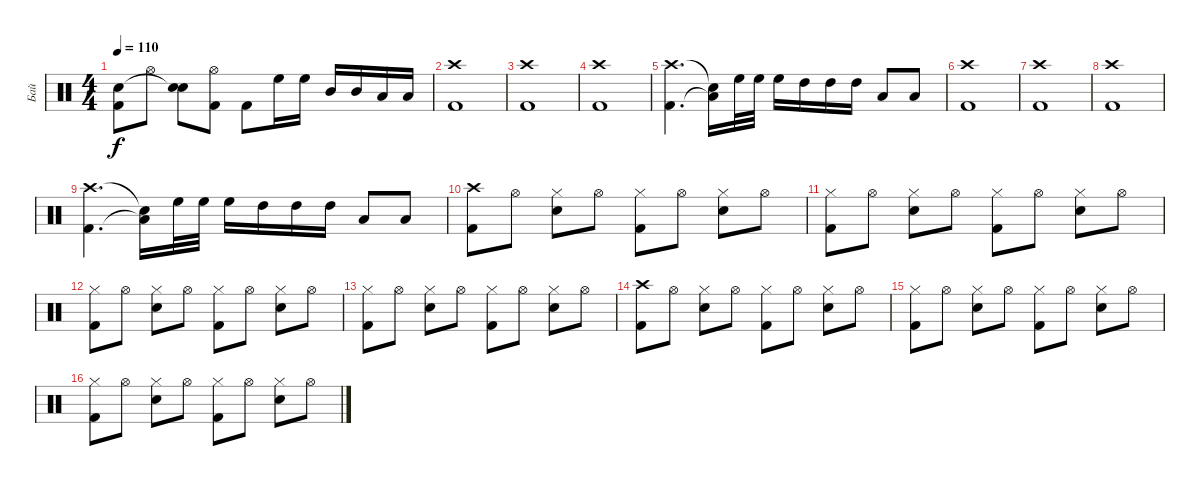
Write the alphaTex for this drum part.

\track ("Бай" "Бай") {instrument percussion}
\staff {score}
\articulation defaults
\ts (4 4)
\tempo 110
\clef neutral
\ks c
("Kick (hit) 2" "Snare (hit)"{t}).8{dy f} "Hi-Hat (open)".8 ("Electric Snare (hit)" "Snare (hit)"{t}).8 ("Kick (hit) 2" "Hi-Hat (open)").8 "Kick (hit) 2".8 "High Floor Tom (hit)".16 "High Floor Tom (hit)".16 "Mid Tom (hit)".16 "Mid Tom (hit)".16 "Low Tom (hit)".16 "Low Tom (hit)".16 |
("Crash high (hit)" "Kick (hit) 2").1 |
("Crash high (hit)" "Kick (hit) 2").1 |
("Crash high (hit)" "Kick (hit) 2").1 |
("Crash high (hit)" "Kick (hit) 2").4{d} ("Snare (hit)"{t} "Low Tom (hit)"{t}).16 "High Floor Tom (hit)".32 "High Floor Tom (hit)".32 "High Floor Tom (hit)".16 "High Tom (hit)".16 "High Tom (hit)".16 "High Tom (hit)".16 "Low Tom (hit)".8 "Low Tom (hit)".8 |
("Crash high (hit)" "Kick (hit) 2").1 |
("Crash high (hit)" "Kick (hit) 2").1 |
("Crash high (hit)" "Kick (hit) 2").1 |
("Crash high (hit)" "Kick (hit) 2").4{d} ("Snare (hit)"{t} "Low Tom (hit)"{t}).16 "High Floor Tom (hit)".32 "High Floor Tom (hit)".32 "High Floor Tom (hit)".16 "High Tom (hit)".16 "High Tom (hit)".16 "High Tom (hit)".16 "Low Tom (hit)".8 "Low Tom (hit)".8 |
("Crash high (hit)" "Kick (hit) 2").8 "Hi-Hat (open)".8 ("Electric Snare (hit)" "Hi-Hat (closed)").8 "Hi-Hat (open)".8 ("Kick (hit) 2" "Hi-Hat (closed)").8 "Hi-Hat (open)".8 ("Electric Snare (hit)" "Hi-Hat (closed)").8 "Hi-Hat (open)".8 |
("Kick (hit) 2" "Hi-Hat (closed)").8 "Hi-Hat (open)".8 ("Electric Snare (hit)" "Hi-Hat (closed)").8 "Hi-Hat (open)".8 ("Kick (hit) 2" "Hi-Hat (closed)").8 "Hi-Hat (open)".8 ("Electric Snare (hit)" "Hi-Hat (closed)").8 "Hi-Hat (open)".8 |
("Kick (hit) 2" "Hi-Hat (closed)").8 "Hi-Hat (open)".8 ("Electric Snare (hit)" "Hi-Hat (closed)").8 "Hi-Hat (open)".8 ("Kick (hit) 2" "Hi-Hat (closed)").8 "Hi-Hat (open)".8 ("Electric Snare (hit)" "Hi-Hat (closed)").8 "Hi-Hat (open)".8 |
("Kick (hit) 2" "Hi-Hat (closed)").8 "Hi-Hat (open)".8 ("Electric Snare (hit)" "Hi-Hat (closed)").8 "Hi-Hat (open)".8 ("Kick (hit) 2" "Hi-Hat (closed)").8 "Hi-Hat (open)".8 ("Electric Snare (hit)" "Hi-Hat (closed)").8 "Hi-Hat (open)".8 |
("Crash high (hit)" "Kick (hit) 2").8 "Hi-Hat (open)".8 ("Electric Snare (hit)" "Hi-Hat (closed)").8 "Hi-Hat (open)".8 ("Kick (hit) 2" "Hi-Hat (closed)").8 "Hi-Hat (open)".8 ("Electric Snare (hit)" "Hi-Hat (closed)").8 "Hi-Hat (open)".8 |
("Kick (hit) 2" "Hi-Hat (closed)").8 "Hi-Hat (open)".8 ("Electric Snare (hit)" "Hi-Hat (closed)").8 "Hi-Hat (open)".8 ("Kick (hit) 2" "Hi-Hat (closed)").8 "Hi-Hat (open)".8 ("Electric Snare (hit)" "Hi-Hat (closed)").8 "Hi-Hat (open)".8 |
("Kick (hit) 2" "Hi-Hat (closed)").8 "Hi-Hat (open)".8 ("Electric Snare (hit)" "Hi-Hat (closed)").8 "Hi-Hat (open)".8 ("Kick (hit) 2" "Hi-Hat (closed)").8 "Hi-Hat (open)".8 ("Electric Snare (hit)" "Hi-Hat (closed)").8 "Hi-Hat (open)".8
